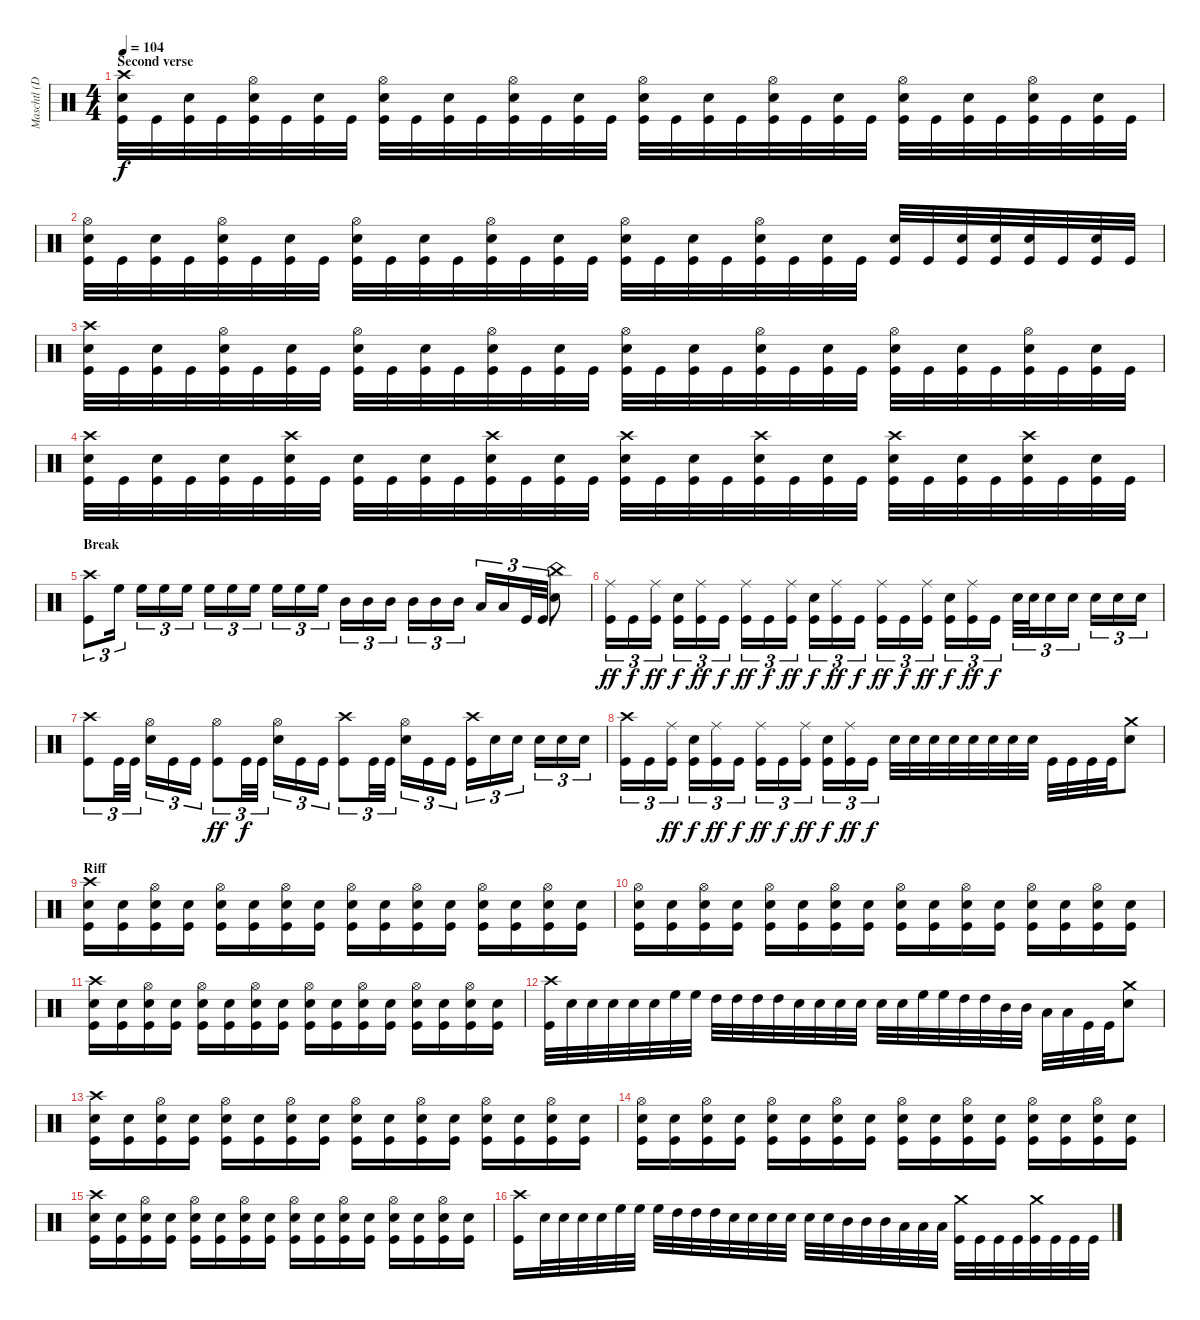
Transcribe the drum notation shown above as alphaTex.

\track ("Maschtl (Drums)" "Maschtl (D") {instrument percussion}
\staff {score}
\articulation defaults
\ts (4 4)
\section ("" "Second verse")
\tempo 104
\clef neutral
\ks c
("Crash high (hit)" "Electric Snare (hit)" "Kick (hit)").32{dy f} "Kick (hit)".32 ("Electric Snare (hit)" "Kick (hit)").32 "Kick (hit)".32 ("Hi-Hat (open)" "Electric Snare (hit)" "Kick (hit)").32 "Kick (hit)".32 ("Electric Snare (hit)" "Kick (hit)").32 "Kick (hit)".32 ("Hi-Hat (open)" "Electric Snare (hit)" "Kick (hit)").32 "Kick (hit)".32 ("Electric Snare (hit)" "Kick (hit)").32 "Kick (hit)".32 ("Hi-Hat (open)" "Electric Snare (hit)" "Kick (hit)").32 "Kick (hit)".32 ("Electric Snare (hit)" "Kick (hit)").32 "Kick (hit)".32 ("Hi-Hat (open)" "Electric Snare (hit)" "Kick (hit)").32 "Kick (hit)".32 ("Electric Snare (hit)" "Kick (hit)").32 "Kick (hit)".32 ("Hi-Hat (open)" "Electric Snare (hit)" "Kick (hit)").32 "Kick (hit)".32 ("Electric Snare (hit)" "Kick (hit)").32 "Kick (hit)".32 ("Hi-Hat (open)" "Electric Snare (hit)" "Kick (hit)").32 "Kick (hit)".32 ("Electric Snare (hit)" "Kick (hit)").32 "Kick (hit)".32 ("Hi-Hat (open)" "Electric Snare (hit)" "Kick (hit)").32 "Kick (hit)".32 ("Electric Snare (hit)" "Kick (hit)").32 "Kick (hit)".32 |
("Hi-Hat (open)" "Electric Snare (hit)" "Kick (hit)").32 "Kick (hit)".32 ("Electric Snare (hit)" "Kick (hit)").32 "Kick (hit)".32 ("Hi-Hat (open)" "Electric Snare (hit)" "Kick (hit)").32 "Kick (hit)".32 ("Electric Snare (hit)" "Kick (hit)").32 "Kick (hit)".32 ("Hi-Hat (open)" "Electric Snare (hit)" "Kick (hit)").32 "Kick (hit)".32 ("Electric Snare (hit)" "Kick (hit)").32 "Kick (hit)".32 ("Hi-Hat (open)" "Electric Snare (hit)" "Kick (hit)").32 "Kick (hit)".32 ("Electric Snare (hit)" "Kick (hit)").32 "Kick (hit)".32 ("Hi-Hat (open)" "Electric Snare (hit)" "Kick (hit)").32 "Kick (hit)".32 ("Electric Snare (hit)" "Kick (hit)").32 "Kick (hit)".32 ("Hi-Hat (open)" "Electric Snare (hit)" "Kick (hit)").32 "Kick (hit)".32 ("Electric Snare (hit)" "Kick (hit)").32 "Kick (hit)".32 ("Electric Snare (hit)" "Kick (hit)").32 "Kick (hit)".32 ("Electric Snare (hit)" "Kick (hit)").32 ("Electric Snare (hit)" "Kick (hit)").32 ("Electric Snare (hit)" "Kick (hit)").32 "Kick (hit)".32 ("Electric Snare (hit)" "Kick (hit)").32 "Kick (hit)".32 |
("Crash high (hit)" "Electric Snare (hit)" "Kick (hit)").32 "Kick (hit)".32 ("Electric Snare (hit)" "Kick (hit)").32 "Kick (hit)".32 ("Hi-Hat (open)" "Electric Snare (hit)" "Kick (hit)").32 "Kick (hit)".32 ("Electric Snare (hit)" "Kick (hit)").32 "Kick (hit)".32 ("Hi-Hat (open)" "Electric Snare (hit)" "Kick (hit)").32 "Kick (hit)".32 ("Electric Snare (hit)" "Kick (hit)").32 "Kick (hit)".32 ("Hi-Hat (open)" "Electric Snare (hit)" "Kick (hit)").32 "Kick (hit)".32 ("Electric Snare (hit)" "Kick (hit)").32 "Kick (hit)".32 ("Hi-Hat (open)" "Electric Snare (hit)" "Kick (hit)").32 "Kick (hit)".32 ("Electric Snare (hit)" "Kick (hit)").32 "Kick (hit)".32 ("Hi-Hat (open)" "Electric Snare (hit)" "Kick (hit)").32 "Kick (hit)".32 ("Electric Snare (hit)" "Kick (hit)").32 "Kick (hit)".32 ("Hi-Hat (open)" "Electric Snare (hit)" "Kick (hit)").32 "Kick (hit)".32 ("Electric Snare (hit)" "Kick (hit)").32 "Kick (hit)".32 ("Hi-Hat (open)" "Electric Snare (hit)" "Kick (hit)").32 "Kick (hit)".32 ("Electric Snare (hit)" "Kick (hit)").32 "Kick (hit)".32 |
("Crash high (hit)" "Electric Snare (hit)" "Kick (hit)").32 "Kick (hit)".32 ("Electric Snare (hit)" "Kick (hit)").32 "Kick (hit)".32 ("Electric Snare (hit)" "Kick (hit)").32 "Kick (hit)".32 ("Crash high (hit)" "Electric Snare (hit)" "Kick (hit)").32 "Kick (hit)".32 ("Electric Snare (hit)" "Kick (hit)").32 "Kick (hit)".32 ("Electric Snare (hit)" "Kick (hit)").32 "Kick (hit)".32 ("Crash high (hit)" "Electric Snare (hit)" "Kick (hit)").32 "Kick (hit)".32 ("Electric Snare (hit)" "Kick (hit)").32 "Kick (hit)".32 ("Crash high (hit)" "Electric Snare (hit)" "Kick (hit)").32 "Kick (hit)".32 ("Electric Snare (hit)" "Kick (hit)").32 "Kick (hit)".32 ("Crash high (hit)" "Electric Snare (hit)" "Kick (hit)").32 "Kick (hit)".32 ("Electric Snare (hit)" "Kick (hit)").32 "Kick (hit)".32 ("Crash high (hit)" "Electric Snare (hit)" "Kick (hit)").32 "Kick (hit)".32 ("Electric Snare (hit)" "Kick (hit)").32 "Kick (hit)".32 ("Crash high (hit)" "Electric Snare (hit)" "Kick (hit)").32 "Kick (hit)".32 ("Electric Snare (hit)" "Kick (hit)").32 "Kick (hit)".32 |
\section ("" "Break")
("Crash high (hit)" "Kick (hit)").8{tu (3 2)} "High Floor Tom (hit)".16{tu (3 2)} "High Floor Tom (hit)".16{tu (3 2)} "High Floor Tom (hit)".16{tu (3 2)} "High Floor Tom (hit)".16{tu (3 2)} "High Floor Tom (hit)".16{tu (3 2)} "High Floor Tom (hit)".16{tu (3 2)} "High Floor Tom (hit)".16{tu (3 2)} "High Floor Tom (hit)".16{tu (3 2)} "High Floor Tom (hit)".16{tu (3 2)} "High Floor Tom (hit)".16{tu (3 2)} "Mid Tom (hit)".16{tu (3 2)} "Mid Tom (hit)".16{tu (3 2)} "Mid Tom (hit)".16{tu (3 2)} "Mid Tom (hit)".16{tu (3 2)} "Mid Tom (hit)".16{tu (3 2)} "Mid Tom (hit)".16{tu (3 2)} "Low Tom (hit)".16{tu (3 2)} "Low Tom (hit)".16{tu (3 2)} "Kick (hit)".32{tu (3 2)} "Kick (hit)".32{tu (3 2)} ("China (hit)" "Electric Snare (hit)").8 |
("Ride (middle)" "Kick (hit)").16{tu (3 2) dy ff} "Kick (hit)".16{tu (3 2) dy f} ("Ride (middle)" "Kick (hit)").16{tu (3 2) dy ff} ("Electric Snare (hit)" "Kick (hit)").16{tu (3 2) dy f} ("Ride (middle)" "Kick (hit)").16{tu (3 2) dy ff} "Kick (hit)".16{tu (3 2) dy f} ("Ride (middle)" "Kick (hit)").16{tu (3 2) dy ff} "Kick (hit)".16{tu (3 2) dy f} ("Ride (middle)" "Kick (hit)").16{tu (3 2) dy ff} ("Electric Snare (hit)" "Kick (hit)").16{tu (3 2) dy f} ("Ride (middle)" "Kick (hit)").16{tu (3 2) dy ff} "Kick (hit)".16{tu (3 2) dy f} ("Ride (middle)" "Kick (hit)").16{tu (3 2) dy ff} "Kick (hit)".16{tu (3 2) dy f} ("Ride (middle)" "Kick (hit)").16{tu (3 2) dy ff} ("Electric Snare (hit)" "Kick (hit)").16{tu (3 2) dy f} ("Ride (middle)" "Kick (hit)").16{tu (3 2) dy ff} "Kick (hit)".16{tu (3 2) dy f} "Electric Snare (hit)".32{tu (3 2)} "Electric Snare (hit)".32{tu (3 2)} "Electric Snare (hit)".16{tu (3 2)} "Electric Snare (hit)".16{tu (3 2)} "Electric Snare (hit)".16{tu (3 2)} "Electric Snare (hit)".16{tu (3 2)} "Electric Snare (hit)".16{tu (3 2)} |
("Crash high (hit)" "Kick (hit)").8{tu (3 2)} "Kick (hit)".32{tu (3 2)} "Kick (hit)".32{tu (3 2)} ("Hi-Hat (open)" "Electric Snare (hit)").16{tu (3 2)} "Kick (hit)".16{tu (3 2)} "Kick (hit)".16{tu (3 2)} ("Hi-Hat (open)" "Kick (hit)").8{tu (3 2) dy ff} "Kick (hit)".32{tu (3 2) dy f} "Kick (hit)".32{tu (3 2)} ("Hi-Hat (open)" "Electric Snare (hit)").16{tu (3 2)} "Kick (hit)".16{tu (3 2)} "Kick (hit)".16{tu (3 2)} ("Crash high (hit)" "Kick (hit)").8{tu (3 2)} "Kick (hit)".32{tu (3 2)} "Kick (hit)".32{tu (3 2)} ("Hi-Hat (open)" "Electric Snare (hit)").16{tu (3 2)} "Kick (hit)".16{tu (3 2)} "Kick (hit)".16{tu (3 2)} ("Crash high (hit)" "Kick (hit)").16{tu (3 2)} "Electric Snare (hit)".16{tu (3 2)} "Electric Snare (hit)".16{tu (3 2)} "Electric Snare (hit)".16{tu (3 2)} "Electric Snare (hit)".16{tu (3 2)} "Electric Snare (hit)".16{tu (3 2)} |
("Crash high (hit)" "Kick (hit)").16{tu (3 2)} "Kick (hit)".16{tu (3 2)} ("Ride (middle)" "Kick (hit)").16{tu (3 2) dy ff} ("Electric Snare (hit)" "Kick (hit)").16{tu (3 2) dy f} ("Ride (middle)" "Kick (hit)").16{tu (3 2) dy ff} "Kick (hit)".16{tu (3 2) dy f} ("Ride (middle)" "Kick (hit)").16{tu (3 2) dy ff} "Kick (hit)".16{tu (3 2) dy f} ("Ride (middle)" "Kick (hit)").16{tu (3 2) dy ff} ("Electric Snare (hit)" "Kick (hit)").16{tu (3 2) dy f} ("Ride (middle)" "Kick (hit)").16{tu (3 2) dy ff} "Kick (hit)".16{tu (3 2) dy f} "Electric Snare (hit)".32 "Electric Snare (hit)".32 "Electric Snare (hit)".32 "Electric Snare (hit)".32 "Electric Snare (hit)".32 "Electric Snare (hit)".32 "Electric Snare (hit)".32 "Electric Snare (hit)".32 "Kick (hit)".32 "Kick (hit)".32 "Kick (hit)".32 "Kick (hit)".32 ("Crash medium (hit)" "Electric Snare (hit)").8 |
\section ("" "Riff")
("Crash high (hit)" "Electric Snare (hit)" "Kick (hit)").16 ("Electric Snare (hit)" "Kick (hit)").16 ("Hi-Hat (open)" "Electric Snare (hit)" "Kick (hit)").16 ("Electric Snare (hit)" "Kick (hit)").16 ("Hi-Hat (open)" "Electric Snare (hit)" "Kick (hit)").16 ("Electric Snare (hit)" "Kick (hit)").16 ("Hi-Hat (open)" "Electric Snare (hit)" "Kick (hit)").16 ("Electric Snare (hit)" "Kick (hit)").16 ("Hi-Hat (open)" "Electric Snare (hit)" "Kick (hit)").16 ("Electric Snare (hit)" "Kick (hit)").16 ("Hi-Hat (open)" "Electric Snare (hit)" "Kick (hit)").16 ("Electric Snare (hit)" "Kick (hit)").16 ("Hi-Hat (open)" "Electric Snare (hit)" "Kick (hit)").16 ("Electric Snare (hit)" "Kick (hit)").16 ("Hi-Hat (open)" "Electric Snare (hit)" "Kick (hit)").16 ("Electric Snare (hit)" "Kick (hit)").16 |
("Hi-Hat (open)" "Electric Snare (hit)" "Kick (hit)").16 ("Electric Snare (hit)" "Kick (hit)").16 ("Hi-Hat (open)" "Electric Snare (hit)" "Kick (hit)").16 ("Electric Snare (hit)" "Kick (hit)").16 ("Hi-Hat (open)" "Electric Snare (hit)" "Kick (hit)").16 ("Electric Snare (hit)" "Kick (hit)").16 ("Hi-Hat (open)" "Electric Snare (hit)" "Kick (hit)").16 ("Electric Snare (hit)" "Kick (hit)").16 ("Hi-Hat (open)" "Electric Snare (hit)" "Kick (hit)").16 ("Electric Snare (hit)" "Kick (hit)").16 ("Hi-Hat (open)" "Electric Snare (hit)" "Kick (hit)").16 ("Electric Snare (hit)" "Kick (hit)").16 ("Hi-Hat (open)" "Electric Snare (hit)" "Kick (hit)").16 ("Electric Snare (hit)" "Kick (hit)").16 ("Hi-Hat (open)" "Electric Snare (hit)" "Kick (hit)").16 ("Electric Snare (hit)" "Kick (hit)").16 |
("Crash high (hit)" "Electric Snare (hit)" "Kick (hit)").16 ("Electric Snare (hit)" "Kick (hit)").16 ("Hi-Hat (open)" "Electric Snare (hit)" "Kick (hit)").16 ("Electric Snare (hit)" "Kick (hit)").16 ("Hi-Hat (open)" "Electric Snare (hit)" "Kick (hit)").16 ("Electric Snare (hit)" "Kick (hit)").16 ("Hi-Hat (open)" "Electric Snare (hit)" "Kick (hit)").16 ("Electric Snare (hit)" "Kick (hit)").16 ("Hi-Hat (open)" "Electric Snare (hit)" "Kick (hit)").16 ("Electric Snare (hit)" "Kick (hit)").16 ("Hi-Hat (open)" "Electric Snare (hit)" "Kick (hit)").16 ("Electric Snare (hit)" "Kick (hit)").16 ("Hi-Hat (open)" "Electric Snare (hit)" "Kick (hit)").16 ("Electric Snare (hit)" "Kick (hit)").16 ("Hi-Hat (open)" "Electric Snare (hit)" "Kick (hit)").16 ("Electric Snare (hit)" "Kick (hit)").16 |
("Crash high (hit)" "Kick (hit)").32 "Electric Snare (hit)".32 "Electric Snare (hit)".32 "Electric Snare (hit)".32 "Electric Snare (hit)".32 "Electric Snare (hit)".32 "High Floor Tom (hit)".32 "High Floor Tom (hit)".32 "High Tom (hit)".32 "High Tom (hit)".32 "High Tom (hit)".32 "High Tom (hit)".32 "Electric Snare (hit)".32 "Electric Snare (hit)".32 "Electric Snare (hit)".32 "Electric Snare (hit)".32 "Electric Snare (hit)".32 "Electric Snare (hit)".32 "High Floor Tom (hit)".32 "High Floor Tom (hit)".32 "High Tom (hit)".32 "High Tom (hit)".32 "Mid Tom (hit)".32 "Mid Tom (hit)".32 "Low Tom (hit)".32 "Low Tom (hit)".32 "Kick (hit)".32 "Kick (hit)".32 ("Crash medium (hit)" "Electric Snare (hit)").8 |
("Crash high (hit)" "Electric Snare (hit)" "Kick (hit)").16 ("Electric Snare (hit)" "Kick (hit)").16 ("Hi-Hat (open)" "Electric Snare (hit)" "Kick (hit)").16 ("Electric Snare (hit)" "Kick (hit)").16 ("Hi-Hat (open)" "Electric Snare (hit)" "Kick (hit)").16 ("Electric Snare (hit)" "Kick (hit)").16 ("Hi-Hat (open)" "Electric Snare (hit)" "Kick (hit)").16 ("Electric Snare (hit)" "Kick (hit)").16 ("Hi-Hat (open)" "Electric Snare (hit)" "Kick (hit)").16 ("Electric Snare (hit)" "Kick (hit)").16 ("Hi-Hat (open)" "Electric Snare (hit)" "Kick (hit)").16 ("Electric Snare (hit)" "Kick (hit)").16 ("Hi-Hat (open)" "Electric Snare (hit)" "Kick (hit)").16 ("Electric Snare (hit)" "Kick (hit)").16 ("Hi-Hat (open)" "Electric Snare (hit)" "Kick (hit)").16 ("Electric Snare (hit)" "Kick (hit)").16 |
("Hi-Hat (open)" "Electric Snare (hit)" "Kick (hit)").16 ("Electric Snare (hit)" "Kick (hit)").16 ("Hi-Hat (open)" "Electric Snare (hit)" "Kick (hit)").16 ("Electric Snare (hit)" "Kick (hit)").16 ("Hi-Hat (open)" "Electric Snare (hit)" "Kick (hit)").16 ("Electric Snare (hit)" "Kick (hit)").16 ("Hi-Hat (open)" "Electric Snare (hit)" "Kick (hit)").16 ("Electric Snare (hit)" "Kick (hit)").16 ("Hi-Hat (open)" "Electric Snare (hit)" "Kick (hit)").16 ("Electric Snare (hit)" "Kick (hit)").16 ("Hi-Hat (open)" "Electric Snare (hit)" "Kick (hit)").16 ("Electric Snare (hit)" "Kick (hit)").16 ("Hi-Hat (open)" "Electric Snare (hit)" "Kick (hit)").16 ("Electric Snare (hit)" "Kick (hit)").16 ("Hi-Hat (open)" "Electric Snare (hit)" "Kick (hit)").16 ("Electric Snare (hit)" "Kick (hit)").16 |
("Crash high (hit)" "Electric Snare (hit)" "Kick (hit)").16 ("Electric Snare (hit)" "Kick (hit)").16 ("Hi-Hat (open)" "Electric Snare (hit)" "Kick (hit)").16 ("Electric Snare (hit)" "Kick (hit)").16 ("Hi-Hat (open)" "Electric Snare (hit)" "Kick (hit)").16 ("Electric Snare (hit)" "Kick (hit)").16 ("Hi-Hat (open)" "Electric Snare (hit)" "Kick (hit)").16 ("Electric Snare (hit)" "Kick (hit)").16 ("Hi-Hat (open)" "Electric Snare (hit)" "Kick (hit)").16 ("Electric Snare (hit)" "Kick (hit)").16 ("Hi-Hat (open)" "Electric Snare (hit)" "Kick (hit)").16 ("Electric Snare (hit)" "Kick (hit)").16 ("Hi-Hat (open)" "Electric Snare (hit)" "Kick (hit)").16 ("Electric Snare (hit)" "Kick (hit)").16 ("Hi-Hat (open)" "Electric Snare (hit)" "Kick (hit)").16 ("Electric Snare (hit)" "Kick (hit)").16 |
("Crash high (hit)" "Kick (hit)").16 "Electric Snare (hit)".32 "Electric Snare (hit)".32 "Electric Snare (hit)".32 "Electric Snare (hit)".32 "High Floor Tom (hit)".32 "High Floor Tom (hit)".32 "High Floor Tom (hit)".32 "High Tom (hit)".32 "High Tom (hit)".32 "High Tom (hit)".32 "Electric Snare (hit)".32 "Electric Snare (hit)".32 "Electric Snare (hit)".32 "Electric Snare (hit)".32 "Electric Snare (hit)".32 "Electric Snare (hit)".32 "Mid Tom (hit)".32 "Mid Tom (hit)".32 "Mid Tom (hit)".32 "Low Tom (hit)".32 "Low Tom (hit)".32 "Low Tom (hit)".32 ("Crash medium (hit)" "Kick (hit)").32 "Kick (hit)".32 "Kick (hit)".32 "Kick (hit)".32 ("Crash medium (hit)" "Kick (hit)").32 "Kick (hit)".32 "Kick (hit)".32 "Kick (hit)".32
